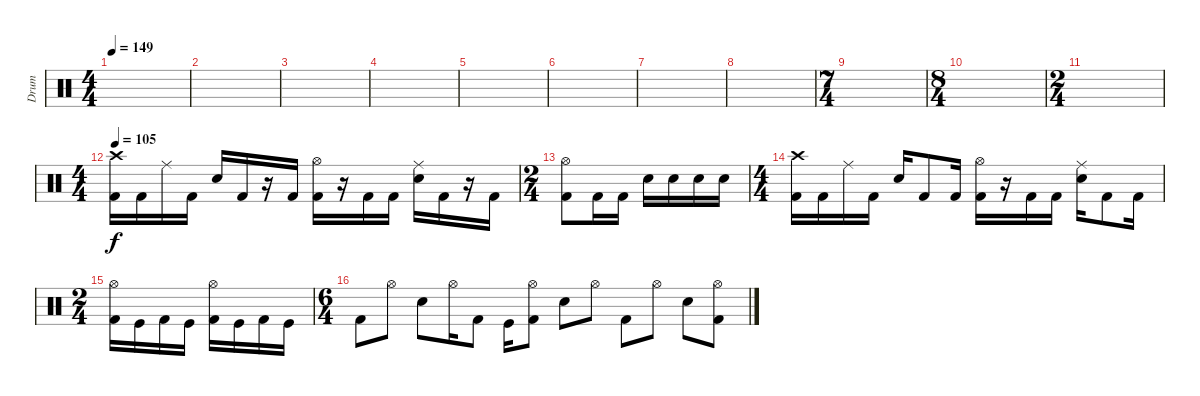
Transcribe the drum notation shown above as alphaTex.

\track ("Drum" "Drum") {instrument percussion}
\staff {score}
\articulation defaults
\ts (4 4)
\tempo 149
\clef neutral
\ks c
|
|
|
|
|
|
|
|
\ts (7 4)
|
\ts (8 4)
|
\ts (2 4)
|
\ts (4 4)
\tempo 105
("Crash high (hit)" "Kick (hit) 2").16{dy f} "Kick (hit) 2".16 "Ride (middle)".16 "Kick (hit) 2".16 "Snare (hit) 2".16 "Kick (hit) 2".16 r.16 "Kick (hit) 2".16 ("Hi-Hat (open)" "Kick (hit) 2").16 r.16 "Kick (hit) 2".16 "Kick (hit) 2".16 ("Ride (middle)" "Snare (hit) 2").16 "Kick (hit) 2".16 r.16 "Kick (hit) 2".16 |
\ts (2 4)
("Hi-Hat (open)" "Kick (hit) 2").8 "Kick (hit) 2".16 "Kick (hit) 2".16 "Snare (hit) 2".16 "Snare (hit) 2".16 "Snare (hit) 2".16 "Snare (hit) 2".16 |
\ts (4 4)
("Crash high (hit)" "Kick (hit) 2").16 "Kick (hit) 2".16 "Ride (middle)".16 "Kick (hit) 2".16 "Snare (hit) 2".16 "Kick (hit) 2".8 "Kick (hit) 2".16 ("Hi-Hat (open)" "Kick (hit) 2").16 r.16 "Kick (hit) 2".16 "Kick (hit) 2".16 ("Ride (middle)" "Snare (hit) 2").16 "Kick (hit) 2".8 "Kick (hit) 2".16 |
\ts (2 4)
("Hi-Hat (open)" "Kick (hit) 2").16 "Kick (hit)".16 "Kick (hit) 2".16 "Kick (hit)".16 ("Hi-Hat (open)" "Kick (hit) 2").16 "Kick (hit)".16 "Kick (hit) 2".16 "Kick (hit)".16 |
\ts (6 4)
"Kick (hit) 2".8 "Hi-Hat (open)".8 "Snare (hit) 2".8 "Hi-Hat (open)".16 "Kick (hit) 2".8 "Kick (hit)".16 ("Hi-Hat (open)" "Kick (hit) 2").8 "Snare (hit) 2".8 "Hi-Hat (open)".8 "Kick (hit) 2".8 "Hi-Hat (open)".8 "Snare (hit) 2".8 ("Hi-Hat (open)" "Kick (hit) 2").8
